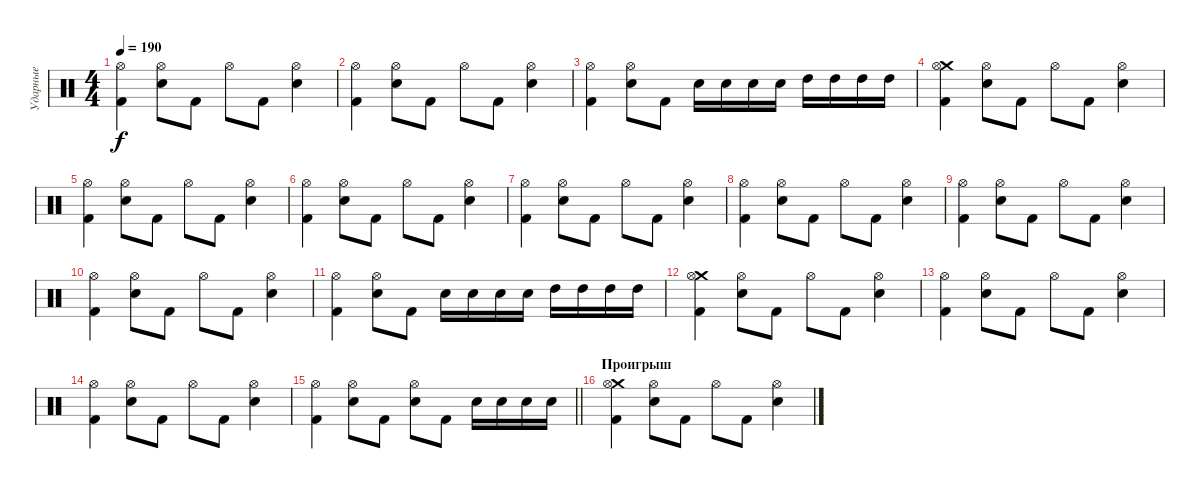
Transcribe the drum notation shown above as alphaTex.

\track ("Ударные" "Ударные") {instrument percussion}
\staff {score}
\articulation defaults
\ts (4 4)
\tempo 190
\clef neutral
\ks c
("Kick (hit) 2" "Hi-Hat (open)").4{dy f} ("Electric Snare (hit)" "Hi-Hat (open)").8 "Kick (hit) 2".8 "Hi-Hat (open)".8 "Kick (hit) 2".8 ("Electric Snare (hit)" "Hi-Hat (open)").4 |
("Kick (hit) 2" "Hi-Hat (open)").4 ("Electric Snare (hit)" "Hi-Hat (open)").8 "Kick (hit) 2".8 "Hi-Hat (open)".8 "Kick (hit) 2".8 ("Electric Snare (hit)" "Hi-Hat (open)").4 |
("Kick (hit) 2" "Hi-Hat (open)").4 ("Electric Snare (hit)" "Hi-Hat (open)").8 "Kick (hit) 2".8 "Electric Snare (hit)".16 "Electric Snare (hit)".16 "Electric Snare (hit)".16 "Electric Snare (hit)".16 "High Tom (hit)".16 "High Tom (hit)".16 "High Tom (hit)".16 "High Tom (hit)".16 |
("Crash medium (hit)" "Kick (hit) 2" "Hi-Hat (open)").4 ("Electric Snare (hit)" "Hi-Hat (open)").8 "Kick (hit) 2".8 "Hi-Hat (open)".8 "Kick (hit) 2".8 ("Electric Snare (hit)" "Hi-Hat (open)").4 |
("Kick (hit) 2" "Hi-Hat (open)").4 ("Electric Snare (hit)" "Hi-Hat (open)").8 "Kick (hit) 2".8 "Hi-Hat (open)".8 "Kick (hit) 2".8 ("Electric Snare (hit)" "Hi-Hat (open)").4 |
("Kick (hit) 2" "Hi-Hat (open)").4 ("Electric Snare (hit)" "Hi-Hat (open)").8 "Kick (hit) 2".8 "Hi-Hat (open)".8 "Kick (hit) 2".8 ("Electric Snare (hit)" "Hi-Hat (open)").4 |
("Kick (hit) 2" "Hi-Hat (open)").4 ("Electric Snare (hit)" "Hi-Hat (open)").8 "Kick (hit) 2".8 "Hi-Hat (open)".8 "Kick (hit) 2".8 ("Electric Snare (hit)" "Hi-Hat (open)").4 |
("Kick (hit) 2" "Hi-Hat (open)").4 ("Electric Snare (hit)" "Hi-Hat (open)").8 "Kick (hit) 2".8 "Hi-Hat (open)".8 "Kick (hit) 2".8 ("Electric Snare (hit)" "Hi-Hat (open)").4 |
("Kick (hit) 2" "Hi-Hat (open)").4 ("Electric Snare (hit)" "Hi-Hat (open)").8 "Kick (hit) 2".8 "Hi-Hat (open)".8 "Kick (hit) 2".8 ("Electric Snare (hit)" "Hi-Hat (open)").4 |
("Kick (hit) 2" "Hi-Hat (open)").4 ("Electric Snare (hit)" "Hi-Hat (open)").8 "Kick (hit) 2".8 "Hi-Hat (open)".8 "Kick (hit) 2".8 ("Electric Snare (hit)" "Hi-Hat (open)").4 |
("Kick (hit) 2" "Hi-Hat (open)").4 ("Electric Snare (hit)" "Hi-Hat (open)").8 "Kick (hit) 2".8 "Electric Snare (hit)".16 "Electric Snare (hit)".16 "Electric Snare (hit)".16 "Electric Snare (hit)".16 "High Tom (hit)".16 "High Tom (hit)".16 "High Tom (hit)".16 "High Tom (hit)".16 |
("Crash medium (hit)" "Kick (hit) 2" "Hi-Hat (open)").4 ("Electric Snare (hit)" "Hi-Hat (open)").8 "Kick (hit) 2".8 "Hi-Hat (open)".8 "Kick (hit) 2".8 ("Electric Snare (hit)" "Hi-Hat (open)").4 |
("Kick (hit) 2" "Hi-Hat (open)").4 ("Electric Snare (hit)" "Hi-Hat (open)").8 "Kick (hit) 2".8 "Hi-Hat (open)".8 "Kick (hit) 2".8 ("Electric Snare (hit)" "Hi-Hat (open)").4 |
("Kick (hit) 2" "Hi-Hat (open)").4 ("Electric Snare (hit)" "Hi-Hat (open)").8 "Kick (hit) 2".8 "Hi-Hat (open)".8 "Kick (hit) 2".8 ("Electric Snare (hit)" "Hi-Hat (open)").4 |
\barLineRight lightlight
("Kick (hit) 2" "Hi-Hat (open)").4 ("Electric Snare (hit)" "Hi-Hat (open)").8 "Kick (hit) 2".8 ("Electric Snare (hit)" "Hi-Hat (open)").8 "Kick (hit) 2".8 "Electric Snare (hit)".16 "Electric Snare (hit)".16 "Electric Snare (hit)".16 "Electric Snare (hit)".16 |
\section ("" "Проигрыш")
("Crash medium (hit)" "Kick (hit) 2" "Hi-Hat (open)").4 ("Electric Snare (hit)" "Hi-Hat (open)").8 "Kick (hit) 2".8 "Hi-Hat (open)".8 "Kick (hit) 2".8 ("Electric Snare (hit)" "Hi-Hat (open)").4
